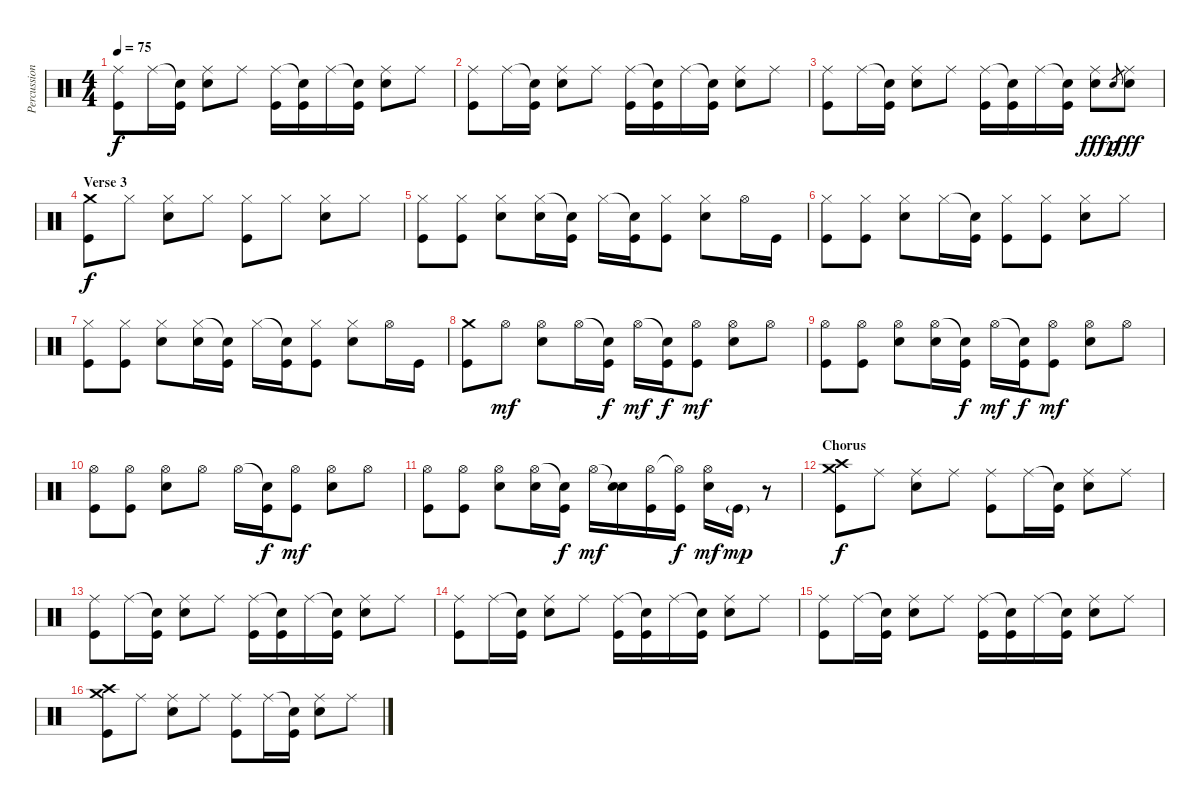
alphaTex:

\track ("Percussion" "Percussion") {instrument percussion}
\staff {score}
\articulation defaults
\ts (4 4)
\tempo 75
\clef neutral
\ks c
("Ride (middle)" "Kick (hit)").8{dy f} "Ride (middle)".16 ("Snare (hit)"{t} "Kick (hit)").16 ("Ride (middle)" "Snare (hit) 2").8 "Ride (middle)".8 ("Ride (middle)" "Kick (hit)").16 ("Snare (hit)"{t} "Kick (hit)").16 "Ride (middle)".16 ("Snare (hit)"{t} "Kick (hit)").16 ("Ride (middle)" "Snare (hit) 2").8 "Ride (middle)".8 |
("Ride (middle)" "Kick (hit)").8 "Ride (middle)".16 ("Snare (hit)"{t} "Kick (hit)").16 ("Ride (middle)" "Snare (hit) 2").8 "Ride (middle)".8 ("Ride (middle)" "Kick (hit)").16 ("Snare (hit)"{t} "Kick (hit)").16 "Ride (middle)".16 ("Snare (hit)"{t} "Kick (hit)").16 ("Ride (middle)" "Snare (hit) 2").8 "Ride (middle)".8 |
("Ride (middle)" "Kick (hit)").8 "Ride (middle)".16 ("Snare (hit)"{t} "Kick (hit)").16 ("Ride (middle)" "Snare (hit) 2").8 "Ride (middle)".8 ("Ride (middle)" "Kick (hit)").16 ("Snare (hit)"{t} "Kick (hit)").16 "Ride (middle)".16 ("Snare (hit)"{t} "Kick (hit)").16 ("Ride (middle)" "Snare (hit) 2").8{dy fff} "Snare (hit) 2".8{gr dy p} ("Ride (middle)" "Snare (hit) 2").8{dy fff} |
\section ("" "Verse 3")
("Crash medium (hit)" "Kick (hit)").8{dy f} "Hi-Hat (closed)".8 ("Hi-Hat (closed)" "Snare (hit) 2").8 "Hi-Hat (closed)".8 ("Hi-Hat (closed)" "Kick (hit)").8 "Hi-Hat (closed)".8 ("Hi-Hat (closed)" "Snare (hit) 2").8 "Hi-Hat (closed)".8 |
("Hi-Hat (closed)" "Kick (hit)").8 ("Hi-Hat (closed)" "Kick (hit)").8 ("Hi-Hat (closed)" "Snare (hit) 2").8 ("Hi-Hat (closed)" "Snare (hit) 2").16 ("Snare (hit)"{t} "Kick (hit)").16 "Hi-Hat (closed)".16 ("Snare (hit)"{t} "Kick (hit)").16 ("Hi-Hat (closed)" "Kick (hit)").8 ("Hi-Hat (closed)" "Snare (hit) 2").8 "Hi-Hat (open)".16 "Kick (hit)".16 |
("Hi-Hat (closed)" "Kick (hit)").8 ("Hi-Hat (closed)" "Kick (hit)").8 ("Hi-Hat (closed)" "Snare (hit) 2").8 "Hi-Hat (closed)".16 ("Snare (hit)"{t} "Kick (hit)").16 ("Hi-Hat (closed)" "Kick (hit)").8 ("Hi-Hat (closed)" "Kick (hit)").8 ("Hi-Hat (closed)" "Snare (hit) 2").8 "Hi-Hat (closed)".8 |
("Hi-Hat (closed)" "Kick (hit)").8 ("Hi-Hat (closed)" "Kick (hit)").8 ("Hi-Hat (closed)" "Snare (hit) 2").8 ("Hi-Hat (closed)" "Snare (hit) 2").16 ("Snare (hit)"{t} "Kick (hit)").16 "Hi-Hat (closed)".16 ("Snare (hit)"{t} "Kick (hit)").16 ("Hi-Hat (closed)" "Kick (hit)").8 ("Hi-Hat (closed)" "Snare (hit) 2").8 "Hi-Hat (open)".16 "Kick (hit)".16 |
("Crash medium (hit)" "Kick (hit)").8 "Hi-Hat (open)".8{dy mf} ("Hi-Hat (open)" "Snare (hit) 2").8 "Hi-Hat (open)".16 ("Snare (hit)"{t} "Kick (hit)").16{dy f} "Hi-Hat (open)".16{dy mf} ("Snare (hit)"{t} "Kick (hit)").16{dy f} ("Hi-Hat (open)" "Kick (hit)").8{dy mf} ("Hi-Hat (open)" "Snare (hit) 2").8 "Hi-Hat (open)".8 |
("Hi-Hat (open)" "Kick (hit)").8 ("Hi-Hat (open)" "Kick (hit)").8 ("Hi-Hat (open)" "Snare (hit) 2").8 ("Hi-Hat (open)" "Snare (hit) 2").16 ("Snare (hit)"{t} "Kick (hit)").16{dy f} "Hi-Hat (open)".16{dy mf} ("Snare (hit)"{t} "Kick (hit)").16{dy f} ("Hi-Hat (open)" "Kick (hit)").8{dy mf} ("Hi-Hat (open)" "Snare (hit) 2").8 "Hi-Hat (open)".8 |
("Hi-Hat (open)" "Kick (hit)").8 ("Hi-Hat (open)" "Kick (hit)").8 ("Hi-Hat (open)" "Snare (hit) 2").8 "Hi-Hat (open)".8 "Hi-Hat (open)".16 ("Snare (hit)"{t} "Kick (hit)").16{dy f} ("Hi-Hat (open)" "Kick (hit)").8{dy mf} ("Hi-Hat (open)" "Snare (hit) 2").8 "Hi-Hat (open)".8 |
("Hi-Hat (open)" "Kick (hit)").8 ("Hi-Hat (open)" "Kick (hit)").8 ("Hi-Hat (open)" "Snare (hit) 2").8 ("Hi-Hat (open)" "Snare (hit) 2").16 ("Snare (hit)"{t} "Kick (hit)").16{dy f} "Hi-Hat (open)".16{dy mf} ("Snare (hit)"{t} "Snare (hit) 2").16 ("Hi-Hat (open)" "Kick (hit)").16 ("Hi-Hat (open)"{t} "Kick (hit)").16{dy f} ("Hi-Hat (open)" "Snare (hit) 2").16{dy mf} "Kick (hit)"{g}.16{dy mp} r.8 |
\section ("" "Chorus")
("Crash high (hit)" "Crash medium (hit)" "Kick (hit)").8{dy f} "Ride (middle)".8 ("Ride (middle)" "Snare (hit) 2").8 "Ride (middle)".8 ("Ride (middle)" "Kick (hit)").8 "Ride (middle)".16 ("Snare (hit)"{t} "Kick (hit)").16 ("Ride (middle)" "Snare (hit) 2").8 "Ride (middle)".8 |
("Ride (middle)" "Kick (hit)").8 "Ride (middle)".16 ("Snare (hit)"{t} "Kick (hit)").16 ("Ride (middle)" "Snare (hit) 2").8 "Ride (middle)".8 ("Ride (middle)" "Kick (hit)").16 ("Snare (hit)"{t} "Kick (hit)").16 "Ride (middle)".16 ("Snare (hit)"{t} "Kick (hit)").16 ("Ride (middle)" "Snare (hit) 2").8 "Ride (middle)".8 |
("Ride (middle)" "Kick (hit)").8 "Ride (middle)".16 ("Snare (hit)"{t} "Kick (hit)").16 ("Ride (middle)" "Snare (hit) 2").8 "Ride (middle)".8 ("Ride (middle)" "Kick (hit)").16 ("Snare (hit)"{t} "Kick (hit)").16 "Ride (middle)".16 ("Snare (hit)"{t} "Kick (hit)").16 ("Ride (middle)" "Snare (hit) 2").8 "Ride (middle)".8 |
("Ride (middle)" "Kick (hit)").8 "Ride (middle)".16 ("Snare (hit)"{t} "Kick (hit)").16 ("Ride (middle)" "Snare (hit) 2").8 "Ride (middle)".8 ("Ride (middle)" "Kick (hit)").16 ("Snare (hit)"{t} "Kick (hit)").16 "Ride (middle)".16 ("Snare (hit)"{t} "Kick (hit)").16 ("Ride (middle)" "Snare (hit) 2").8 "Ride (middle)".8 |
("Crash high (hit)" "Crash medium (hit)" "Kick (hit)").8 "Ride (middle)".8 ("Ride (middle)" "Snare (hit) 2").8 "Ride (middle)".8 ("Ride (middle)" "Kick (hit)").8 "Ride (middle)".16 ("Snare (hit)"{t} "Kick (hit)").16 ("Ride (middle)" "Snare (hit) 2").8 "Ride (middle)".8
